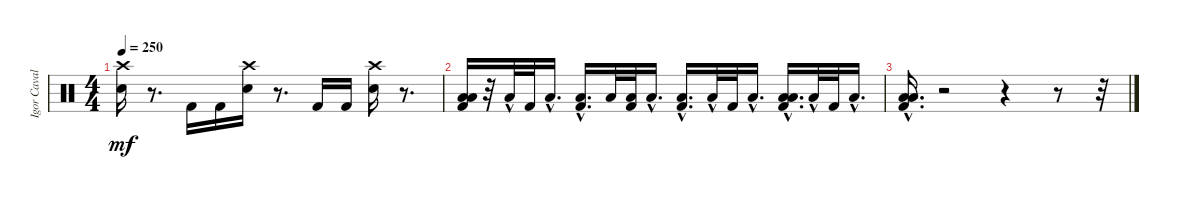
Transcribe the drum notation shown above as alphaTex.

\track ("Igor Cavalera" "Igor Caval") {instrument percussion}
\staff {score}
\articulation defaults
\ts (4 4)
\tempo 250
\clef neutral
\ks c
("Crash high (hit)" "Snare (hit) 2").16{dy mf} r.8{d} "Kick (hit) 2".16 "Kick (hit) 2".16 ("Snare (hit) 2" "Crash high (hit)").16 r.8{d} "Kick (hit) 2".16 "Kick (hit) 2".16 ("Snare (hit) 2" "Crash high (hit)").16 r.8{d} |
("Kick (hit) 2" "Low Floor Tom (hit)" "Low Tom (hit)").16 r.32 "Low Tom (hit)"{hac}.32 "Kick (hit) 2".32 "Low Tom (hit)"{hac}.16{d} ("Low Tom (hit)"{hac} "Kick (hit) 2").16{d} "Low Tom (hit)".32 ("Kick (hit) 2" "Low Floor Tom (hit)").32 "Low Tom (hit)"{hac}.16{d} ("Low Tom (hit)"{hac} "Kick (hit) 2").16{d} "Low Tom (hit)"{hac}.32 "Kick (hit) 2".32 "Low Tom (hit)"{hac}.16{d} ("Low Tom (hit)"{hac} "Kick (hit) 2" "Low Floor Tom (hit)").16{d} "Low Tom (hit)"{hac}.32 "Kick (hit) 2".32 "Low Tom (hit)"{hac}.16{d} |
("Low Tom (hit)"{hac} "Low Floor Tom (hit)" "Kick (hit) 2").16{d} r.2 r.4 r.8 r.32
